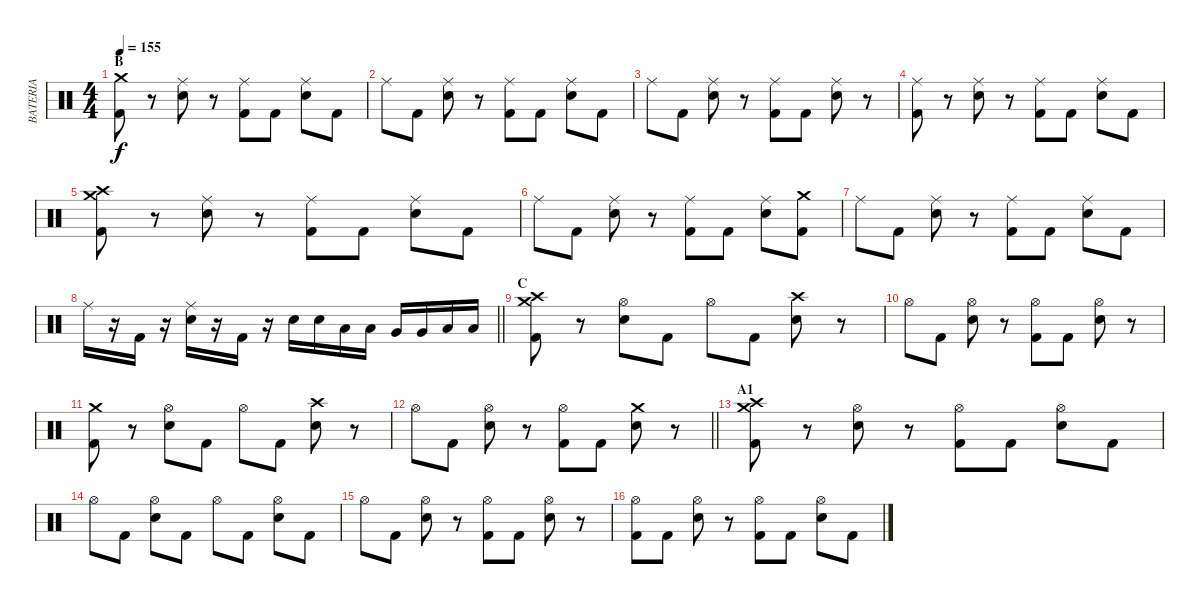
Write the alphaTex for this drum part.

\track ("BATERIA" "BATERIA") {instrument percussion}
\staff {score}
\articulation defaults
\ts (4 4)
\section ("" "B")
\tempo 155
\clef neutral
\ks c
("Kick (hit) 2" "Crash medium (hit)").8{dy f} r.8 ("Ride (middle)" "Electric Snare (hit)").8 r.8 ("Kick (hit) 2" "Ride (middle)").8 "Kick (hit) 2".8 ("Ride (middle)" "Electric Snare (hit)").8 "Kick (hit) 2".8 |
"Ride (middle)".8 "Kick (hit) 2".8 ("Ride (middle)" "Electric Snare (hit)").8 r.8 ("Kick (hit) 2" "Ride (middle)").8 "Kick (hit) 2".8 ("Ride (middle)" "Electric Snare (hit)").8 "Kick (hit) 2".8 |
"Ride (middle)".8 "Kick (hit) 2".8 ("Ride (middle)" "Electric Snare (hit)").8 r.8 ("Kick (hit) 2" "Ride (middle)").8 "Kick (hit) 2".8 ("Ride (middle)" "Electric Snare (hit)").8 r.8 |
("Kick (hit) 2" "Ride (middle)").8 r.8 ("Ride (middle)" "Electric Snare (hit)").8 r.8 ("Kick (hit) 2" "Ride (middle)").8 "Kick (hit) 2".8 ("Ride (middle)" "Electric Snare (hit)").8 "Kick (hit) 2".8 |
("Kick (hit) 2" "Crash high (hit)" "Crash medium (hit)").8 r.8 ("Ride (middle)" "Electric Snare (hit)").8 r.8 ("Kick (hit) 2" "Ride (middle)").8 "Kick (hit) 2".8 ("Ride (middle)" "Electric Snare (hit)").8 "Kick (hit) 2".8 |
"Ride (middle)".8 "Kick (hit) 2".8 ("Ride (middle)" "Electric Snare (hit)").8 r.8 ("Kick (hit) 2" "Ride (middle)").8 "Kick (hit) 2".8 ("Ride (middle)" "Electric Snare (hit)").8 ("Kick (hit) 2" "Crash medium (hit)").8 |
"Ride (middle)".8 "Kick (hit) 2".8 ("Ride (middle)" "Electric Snare (hit)").8 r.8 ("Kick (hit) 2" "Ride (middle)").8 "Kick (hit) 2".8 ("Ride (middle)" "Electric Snare (hit)").8 "Kick (hit) 2".8 |
\barLineRight lightlight "Ride (middle)".16
r.16 "Kick (hit) 2".16 r.16 ("Ride (middle)" "Electric Snare (hit)").16 r.16 "Kick (hit) 2".16 r.16 "Electric Snare (hit)".16 "Electric Snare (hit)".16 "Low Tom (hit)".16 "Low Tom (hit)".16 "Very Low Tom (hit)".16 "Very Low Tom (hit)".16 "Low Floor Tom (hit)".16 "Low Floor Tom (hit)".16 |
\section ("" "C")
("Kick (hit) 2" "Crash high (hit)" "Crash medium (hit)").8 r.8 ("Hi-Hat (open)" "Electric Snare (hit)").8 "Kick (hit) 2".8 "Hi-Hat (open)".8 "Kick (hit) 2".8 ("Electric Snare (hit)" "Crash high (hit)").8 r.8 |
"Hi-Hat (open)".8 "Kick (hit) 2".8 ("Hi-Hat (open)" "Electric Snare (hit)").8 r.8 ("Kick (hit) 2" "Hi-Hat (open)").8 "Kick (hit) 2".8 ("Hi-Hat (open)" "Electric Snare (hit)").8 r.8 |
("Kick (hit) 2" "Crash medium (hit)").8 r.8 ("Hi-Hat (open)" "Electric Snare (hit)").8 "Kick (hit) 2".8 "Hi-Hat (open)".8 "Kick (hit) 2".8 ("Electric Snare (hit)" "Crash high (hit)").8 r.8 |
\barLineRight lightlight "Hi-Hat (open)".8 "Kick (hit) 2".8
("Hi-Hat (open)" "Electric Snare (hit)").8 r.8 ("Kick (hit) 2" "Hi-Hat (open)").8 "Kick (hit) 2".8 ("Electric Snare (hit)" "Crash medium (hit)").8 r.8 |
\section ("" "A1")
("Kick (hit) 2" "Crash high (hit)" "Crash medium (hit)").8 r.8 ("Hi-Hat (open)" "Electric Snare (hit)").8 r.8 ("Kick (hit) 2" "Hi-Hat (open)").8 "Kick (hit) 2".8 ("Hi-Hat (open)" "Electric Snare (hit)").8 "Kick (hit) 2".8 |
"Hi-Hat (open)".8 "Kick (hit) 2".8 ("Hi-Hat (open)" "Electric Snare (hit)").8 "Kick (hit) 2".8 "Hi-Hat (open)".8 "Kick (hit) 2".8 ("Hi-Hat (open)" "Electric Snare (hit)").8 "Kick (hit) 2".8 |
"Hi-Hat (open)".8 "Kick (hit) 2".8 ("Hi-Hat (open)" "Electric Snare (hit)").8 r.8 ("Kick (hit) 2" "Hi-Hat (open)").8 "Kick (hit) 2".8 ("Hi-Hat (open)" "Electric Snare (hit)").8 r.8 |
("Kick (hit) 2" "Hi-Hat (open)").8 "Kick (hit) 2".8 ("Hi-Hat (open)" "Electric Snare (hit)").8 r.8 ("Kick (hit) 2" "Hi-Hat (open)").8 "Kick (hit) 2".8 ("Hi-Hat (open)" "Electric Snare (hit)").8 "Kick (hit) 2".8
